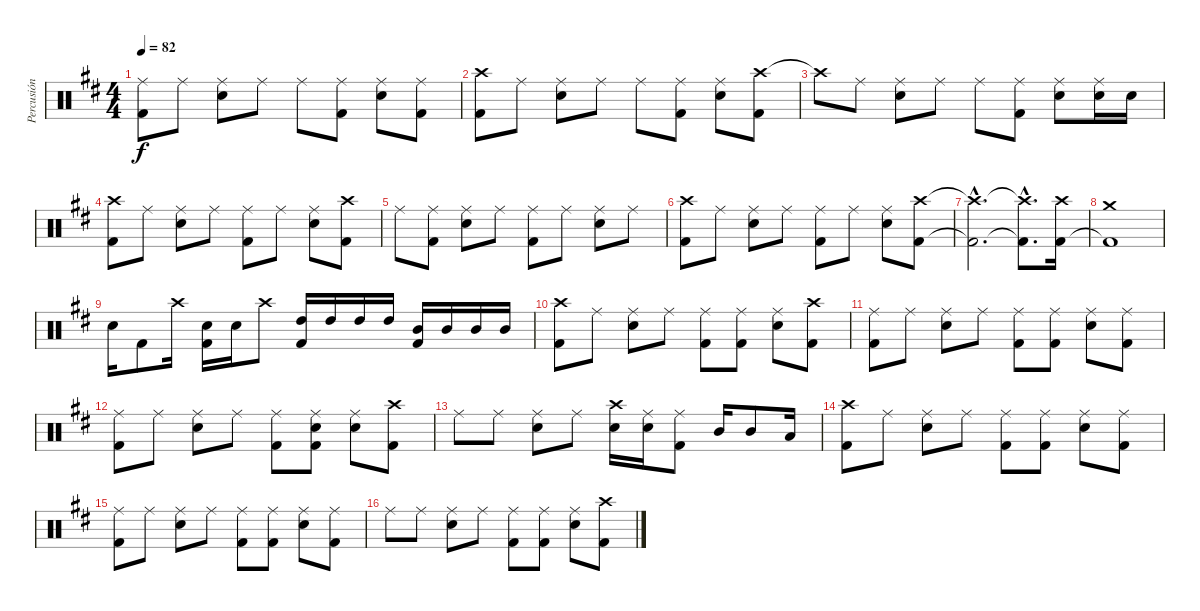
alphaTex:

\track ("Percusión" "Percusión") {instrument percussion}
\staff {score}
\articulation defaults
\ts (4 4)
\tempo 82
\clef neutral
\ks d
("Ride (middle)" "Kick (hit) 2").8{dy f} "Ride (middle)".8 ("Ride (middle)" "Snare (hit) 2").8 "Ride (middle)".8 "Ride (middle)".8 ("Ride (middle)" "Kick (hit) 2").8 ("Ride (middle)" "Snare (hit) 2").8 ("Ride (middle)" "Kick (hit) 2").8 |
("Crash high (hit)" "Kick (hit) 2").8 "Ride (middle)".8 ("Ride (middle)" "Snare (hit) 2").8 "Ride (middle)".8 "Ride (middle)".8 ("Ride (middle)" "Kick (hit) 2").8 ("Ride (middle)" "Snare (hit) 2").8 ("Crash high (hit)" "Kick (hit) 2").8 |
"Crash high (hit)"{t}.8 "Ride (middle)".8 ("Ride (middle)" "Snare (hit) 2").8 "Ride (middle)".8 "Ride (middle)".8 ("Ride (middle)" "Kick (hit) 2").8 ("Ride (middle)" "Snare (hit) 2").8 ("Ride (middle)" "Snare (hit) 2").16 "Snare (hit) 2".16 |
("Crash high (hit)" "Kick (hit) 2").8 "Ride (middle)".8 ("Ride (middle)" "Snare (hit) 2").8 "Ride (middle)".8 ("Ride (middle)" "Kick (hit) 2").8 "Ride (middle)".8 ("Ride (middle)" "Snare (hit) 2").8 ("Crash high (hit)" "Kick (hit) 2").8 |
"Ride (middle)".8 ("Ride (middle)" "Kick (hit) 2").8 ("Ride (middle)" "Snare (hit) 2").8 "Ride (middle)".8 ("Ride (middle)" "Kick (hit) 2").8 "Ride (middle)".8 ("Ride (middle)" "Snare (hit) 2").8 "Ride (middle)".8 |
("Crash high (hit)" "Kick (hit) 2").8 "Ride (middle)".8 ("Ride (middle)" "Snare (hit) 2").8 "Ride (middle)".8 ("Ride (middle)" "Kick (hit) 2").8 "Ride (middle)".8 ("Ride (middle)" "Snare (hit) 2").8 ("Crash high (hit)" "Kick (hit) 2").8 |
("Crash high (hit)"{hac t} "Kick (hit) 2"{hac t}).2{d} ("Crash high (hit)"{hac t} "Kick (hit) 2"{hac t}).8{d} ("Crash high (hit)" "Kick (hit) 2").16 |
("Crash medium (hit)" "Kick (hit) 2"{t}).1 |
"Snare (hit) 2".16 "Kick (hit) 2".8 "Crash high (hit)".16 ("Snare (hit) 2" "Kick (hit) 2").16 "Snare (hit) 2".16 "Crash high (hit)".8 ("High Tom (hit)" "Kick (hit) 2").16 "High Tom (hit)".16 "High Tom (hit)".16 "High Tom (hit)".16 ("Mid Tom (hit)" "Kick (hit) 2").16 "Mid Tom (hit)".16 "Mid Tom (hit)".16 "Mid Tom (hit)".16 |
("Crash high (hit)" "Kick (hit) 2").8 "Ride (middle)".8 ("Ride (middle)" "Snare (hit) 2").8 "Ride (middle)".8 ("Ride (middle)" "Kick (hit) 2").8 ("Ride (middle)" "Kick (hit) 2").8 ("Ride (middle)" "Snare (hit) 2").8 ("Crash high (hit)" "Kick (hit) 2").8 |
("Ride (middle)" "Kick (hit) 2").8 "Ride (middle)".8 ("Ride (middle)" "Snare (hit) 2").8 "Ride (middle)".8 ("Ride (middle)" "Kick (hit) 2").8 ("Ride (middle)" "Kick (hit) 2").8 ("Ride (middle)" "Snare (hit) 2").8 ("Ride (middle)" "Kick (hit) 2").8 |
("Ride (middle)" "Kick (hit) 2").8 "Ride (middle)".8 ("Ride (middle)" "Snare (hit) 2").8 "Ride (middle)".8 ("Ride (middle)" "Kick (hit) 2").8 ("Ride (middle)" "Snare (hit) 2" "Kick (hit) 2").8 ("Ride (middle)" "Snare (hit) 2").8 ("Crash high (hit)" "Kick (hit) 2").8 |
"Ride (middle)".8 "Ride (middle)".8 ("Ride (middle)" "Snare (hit) 2").8 "Ride (middle)".8 ("Crash high (hit)" "Snare (hit) 2").16 ("Ride (middle)" "Snare (hit) 2").16 ("Ride (middle)" "Kick (hit) 2").8 "Mid Tom (hit)".16 "Mid Tom (hit)".8 "Low Tom (hit)".16 |
("Crash high (hit)" "Kick (hit) 2").8 "Ride (middle)".8 ("Ride (middle)" "Snare (hit) 2").8 "Ride (middle)".8 ("Ride (middle)" "Kick (hit) 2").8 ("Ride (middle)" "Kick (hit) 2").8 ("Ride (middle)" "Snare (hit) 2").8 ("Ride (middle)" "Kick (hit) 2").8 |
("Ride (middle)" "Kick (hit) 2").8 "Ride (middle)".8 ("Ride (middle)" "Snare (hit) 2").8 "Ride (middle)".8 ("Ride (middle)" "Kick (hit) 2").8 ("Ride (middle)" "Kick (hit) 2").8 ("Ride (middle)" "Snare (hit) 2").8 ("Ride (middle)" "Kick (hit) 2").8 |
"Ride (middle)".8 "Ride (middle)".8 ("Ride (middle)" "Snare (hit) 2").8 "Ride (middle)".8 ("Ride (middle)" "Kick (hit) 2").8 ("Ride (middle)" "Kick (hit) 2").8 ("Ride (middle)" "Snare (hit) 2").8 ("Crash high (hit)" "Kick (hit) 2").8
